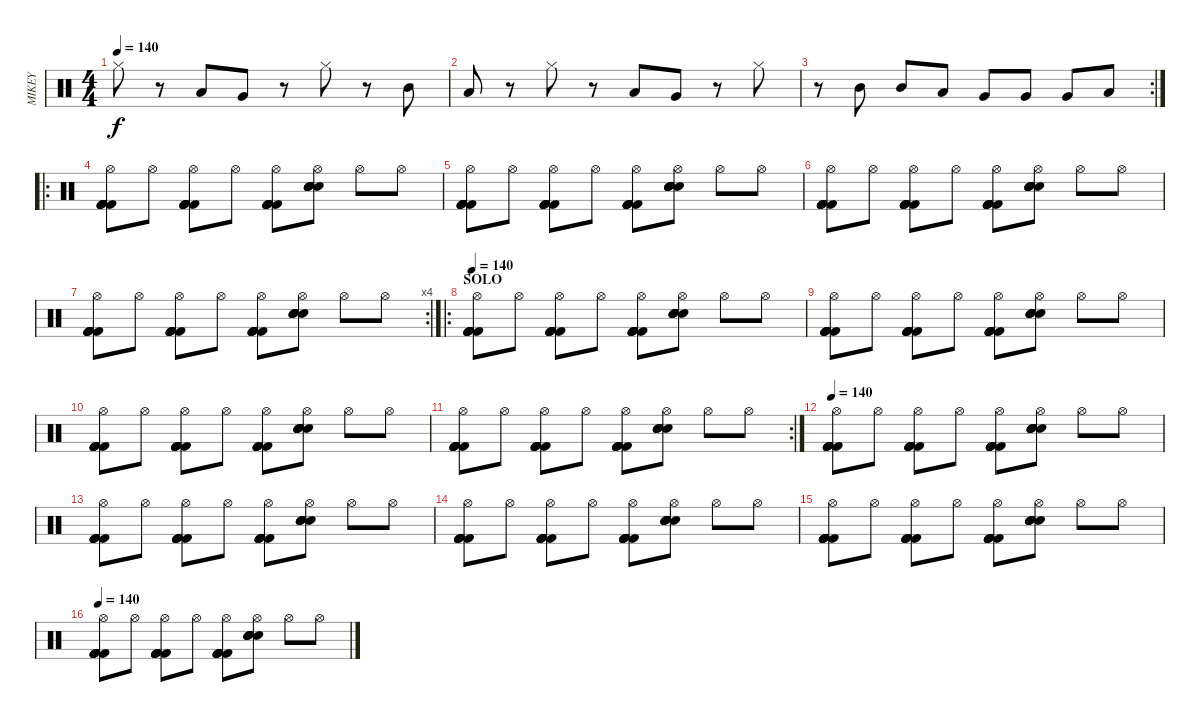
\track ("MIKEY" "MIKEY") {instrument percussion}
\staff {score}
\articulation defaults
\ts (4 4)
\tempo 140
\clef neutral
\ks c "Hi-Hat (closed)".8{dy f}
r.8 "Low Tom (hit)".8 "Very Low Tom (hit)".8 r.8 "Hi-Hat (closed)".8 r.8 "Mid Tom (hit)".8 |
"Low Tom (hit)".8 r.8 "Hi-Hat (closed)".8 r.8 "Low Tom (hit)".8 "Very Low Tom (hit)".8 r.8 "Hi-Hat (closed)".8 |
\rc 2
r.8 "Mid Tom (hit)".8 "Mid Tom (hit)".8 "Low Tom (hit)".8 "Very Low Tom (hit)".8 "Very Low Tom (hit)".8 "Very Low Tom (hit)".8 "Low Floor Tom (hit)".8 |
\ro
("Kick (hit) 2" "Kick (hit) 2" "Kick (hit) 2" "Kick (hit) 2" "Kick (hit) 2" "Hi-Hat (open)").8 "Hi-Hat (open)".8 ("Kick (hit) 2" "Kick (hit) 2" "Kick (hit) 2" "Kick (hit) 2" "Kick (hit) 2" "Hi-Hat (open)").8 "Hi-Hat (open)".8 ("Kick (hit) 2" "Kick (hit) 2" "Kick (hit) 2" "Kick (hit) 2" "Kick (hit) 2" "Hi-Hat (open)").8 ("Snare (hit) 2" "Snare (hit) 2" "Snare (hit) 2" "Snare (hit) 2" "Snare (hit) 2" "Hi-Hat (open)").8 "Hi-Hat (open)".8 "Hi-Hat (open)".8 |
("Kick (hit) 2" "Kick (hit) 2" "Kick (hit) 2" "Kick (hit) 2" "Kick (hit) 2" "Hi-Hat (open)").8 "Hi-Hat (open)".8 ("Kick (hit) 2" "Kick (hit) 2" "Kick (hit) 2" "Kick (hit) 2" "Kick (hit) 2" "Hi-Hat (open)").8 "Hi-Hat (open)".8 ("Kick (hit) 2" "Kick (hit) 2" "Kick (hit) 2" "Kick (hit) 2" "Kick (hit) 2" "Hi-Hat (open)").8 ("Snare (hit) 2" "Snare (hit) 2" "Snare (hit) 2" "Snare (hit) 2" "Snare (hit) 2" "Hi-Hat (open)").8 "Hi-Hat (open)".8 "Hi-Hat (open)".8 |
("Kick (hit) 2" "Kick (hit) 2" "Kick (hit) 2" "Kick (hit) 2" "Kick (hit) 2" "Hi-Hat (open)").8 "Hi-Hat (open)".8 ("Kick (hit) 2" "Kick (hit) 2" "Kick (hit) 2" "Kick (hit) 2" "Kick (hit) 2" "Hi-Hat (open)").8 "Hi-Hat (open)".8 ("Kick (hit) 2" "Kick (hit) 2" "Kick (hit) 2" "Kick (hit) 2" "Kick (hit) 2" "Hi-Hat (open)").8 ("Snare (hit) 2" "Snare (hit) 2" "Snare (hit) 2" "Snare (hit) 2" "Snare (hit) 2" "Hi-Hat (open)").8 "Hi-Hat (open)".8 "Hi-Hat (open)".8 |
\rc 4
("Kick (hit) 2" "Kick (hit) 2" "Kick (hit) 2" "Kick (hit) 2" "Kick (hit) 2" "Hi-Hat (open)").8 "Hi-Hat (open)".8 ("Kick (hit) 2" "Kick (hit) 2" "Kick (hit) 2" "Kick (hit) 2" "Kick (hit) 2" "Hi-Hat (open)").8 "Hi-Hat (open)".8 ("Kick (hit) 2" "Kick (hit) 2" "Kick (hit) 2" "Kick (hit) 2" "Kick (hit) 2" "Hi-Hat (open)").8 ("Snare (hit) 2" "Snare (hit) 2" "Snare (hit) 2" "Snare (hit) 2" "Snare (hit) 2" "Hi-Hat (open)").8 "Hi-Hat (open)".8 "Hi-Hat (open)".8 |
\ro
\section ("" "SOLO")
\tempo 140
("Kick (hit) 2" "Kick (hit) 2" "Kick (hit) 2" "Kick (hit) 2" "Kick (hit) 2" "Hi-Hat (open)").8 "Hi-Hat (open)".8 ("Kick (hit) 2" "Kick (hit) 2" "Kick (hit) 2" "Kick (hit) 2" "Kick (hit) 2" "Hi-Hat (open)").8 "Hi-Hat (open)".8 ("Kick (hit) 2" "Kick (hit) 2" "Kick (hit) 2" "Kick (hit) 2" "Kick (hit) 2" "Hi-Hat (open)").8 ("Snare (hit) 2" "Snare (hit) 2" "Snare (hit) 2" "Snare (hit) 2" "Snare (hit) 2" "Hi-Hat (open)").8 "Hi-Hat (open)".8 "Hi-Hat (open)".8 |
("Kick (hit) 2" "Kick (hit) 2" "Kick (hit) 2" "Kick (hit) 2" "Kick (hit) 2" "Hi-Hat (open)").8 "Hi-Hat (open)".8 ("Kick (hit) 2" "Kick (hit) 2" "Kick (hit) 2" "Kick (hit) 2" "Kick (hit) 2" "Hi-Hat (open)").8 "Hi-Hat (open)".8 ("Kick (hit) 2" "Kick (hit) 2" "Kick (hit) 2" "Kick (hit) 2" "Kick (hit) 2" "Hi-Hat (open)").8 ("Snare (hit) 2" "Snare (hit) 2" "Snare (hit) 2" "Snare (hit) 2" "Snare (hit) 2" "Hi-Hat (open)").8 "Hi-Hat (open)".8 "Hi-Hat (open)".8 |
("Kick (hit) 2" "Kick (hit) 2" "Kick (hit) 2" "Kick (hit) 2" "Kick (hit) 2" "Hi-Hat (open)").8 "Hi-Hat (open)".8 ("Kick (hit) 2" "Kick (hit) 2" "Kick (hit) 2" "Kick (hit) 2" "Kick (hit) 2" "Hi-Hat (open)").8 "Hi-Hat (open)".8 ("Kick (hit) 2" "Kick (hit) 2" "Kick (hit) 2" "Kick (hit) 2" "Kick (hit) 2" "Hi-Hat (open)").8 ("Snare (hit) 2" "Snare (hit) 2" "Snare (hit) 2" "Snare (hit) 2" "Snare (hit) 2" "Hi-Hat (open)").8 "Hi-Hat (open)".8 "Hi-Hat (open)".8 |
\rc 2
("Kick (hit) 2" "Kick (hit) 2" "Kick (hit) 2" "Kick (hit) 2" "Kick (hit) 2" "Hi-Hat (open)").8 "Hi-Hat (open)".8 ("Kick (hit) 2" "Kick (hit) 2" "Kick (hit) 2" "Kick (hit) 2" "Kick (hit) 2" "Hi-Hat (open)").8 "Hi-Hat (open)".8 ("Kick (hit) 2" "Kick (hit) 2" "Kick (hit) 2" "Kick (hit) 2" "Kick (hit) 2" "Hi-Hat (open)").8 ("Snare (hit) 2" "Snare (hit) 2" "Snare (hit) 2" "Snare (hit) 2" "Snare (hit) 2" "Hi-Hat (open)").8 "Hi-Hat (open)".8 "Hi-Hat (open)".8 |
\tempo 140
("Kick (hit) 2" "Kick (hit) 2" "Kick (hit) 2" "Kick (hit) 2" "Kick (hit) 2" "Hi-Hat (open)").8 "Hi-Hat (open)".8 ("Kick (hit) 2" "Kick (hit) 2" "Kick (hit) 2" "Kick (hit) 2" "Kick (hit) 2" "Hi-Hat (open)").8 "Hi-Hat (open)".8 ("Kick (hit) 2" "Kick (hit) 2" "Kick (hit) 2" "Kick (hit) 2" "Kick (hit) 2" "Hi-Hat (open)").8 ("Snare (hit) 2" "Snare (hit) 2" "Snare (hit) 2" "Snare (hit) 2" "Snare (hit) 2" "Hi-Hat (open)").8 "Hi-Hat (open)".8 "Hi-Hat (open)".8 |
("Kick (hit) 2" "Kick (hit) 2" "Kick (hit) 2" "Kick (hit) 2" "Kick (hit) 2" "Hi-Hat (open)").8 "Hi-Hat (open)".8 ("Kick (hit) 2" "Kick (hit) 2" "Kick (hit) 2" "Kick (hit) 2" "Kick (hit) 2" "Hi-Hat (open)").8 "Hi-Hat (open)".8 ("Kick (hit) 2" "Kick (hit) 2" "Kick (hit) 2" "Kick (hit) 2" "Kick (hit) 2" "Hi-Hat (open)").8 ("Snare (hit) 2" "Snare (hit) 2" "Snare (hit) 2" "Snare (hit) 2" "Snare (hit) 2" "Hi-Hat (open)").8 "Hi-Hat (open)".8 "Hi-Hat (open)".8 |
("Kick (hit) 2" "Kick (hit) 2" "Kick (hit) 2" "Kick (hit) 2" "Kick (hit) 2" "Hi-Hat (open)").8 "Hi-Hat (open)".8 ("Kick (hit) 2" "Kick (hit) 2" "Kick (hit) 2" "Kick (hit) 2" "Kick (hit) 2" "Hi-Hat (open)").8 "Hi-Hat (open)".8 ("Kick (hit) 2" "Kick (hit) 2" "Kick (hit) 2" "Kick (hit) 2" "Kick (hit) 2" "Hi-Hat (open)").8 ("Snare (hit) 2" "Snare (hit) 2" "Snare (hit) 2" "Snare (hit) 2" "Snare (hit) 2" "Hi-Hat (open)").8 "Hi-Hat (open)".8 "Hi-Hat (open)".8 |
("Kick (hit) 2" "Kick (hit) 2" "Kick (hit) 2" "Kick (hit) 2" "Kick (hit) 2" "Hi-Hat (open)").8 "Hi-Hat (open)".8 ("Kick (hit) 2" "Kick (hit) 2" "Kick (hit) 2" "Kick (hit) 2" "Kick (hit) 2" "Hi-Hat (open)").8 "Hi-Hat (open)".8 ("Kick (hit) 2" "Kick (hit) 2" "Kick (hit) 2" "Kick (hit) 2" "Kick (hit) 2" "Hi-Hat (open)").8 ("Snare (hit) 2" "Snare (hit) 2" "Snare (hit) 2" "Snare (hit) 2" "Snare (hit) 2" "Hi-Hat (open)").8 "Hi-Hat (open)".8 "Hi-Hat (open)".8 |
\tempo 140
("Kick (hit) 2" "Kick (hit) 2" "Kick (hit) 2" "Kick (hit) 2" "Kick (hit) 2" "Hi-Hat (open)").8 "Hi-Hat (open)".8 ("Kick (hit) 2" "Kick (hit) 2" "Kick (hit) 2" "Kick (hit) 2" "Kick (hit) 2" "Hi-Hat (open)").8 "Hi-Hat (open)".8 ("Kick (hit) 2" "Kick (hit) 2" "Kick (hit) 2" "Kick (hit) 2" "Kick (hit) 2" "Hi-Hat (open)").8 ("Snare (hit) 2" "Snare (hit) 2" "Snare (hit) 2" "Snare (hit) 2" "Snare (hit) 2" "Hi-Hat (open)").8 "Hi-Hat (open)".8 "Hi-Hat (open)".8
